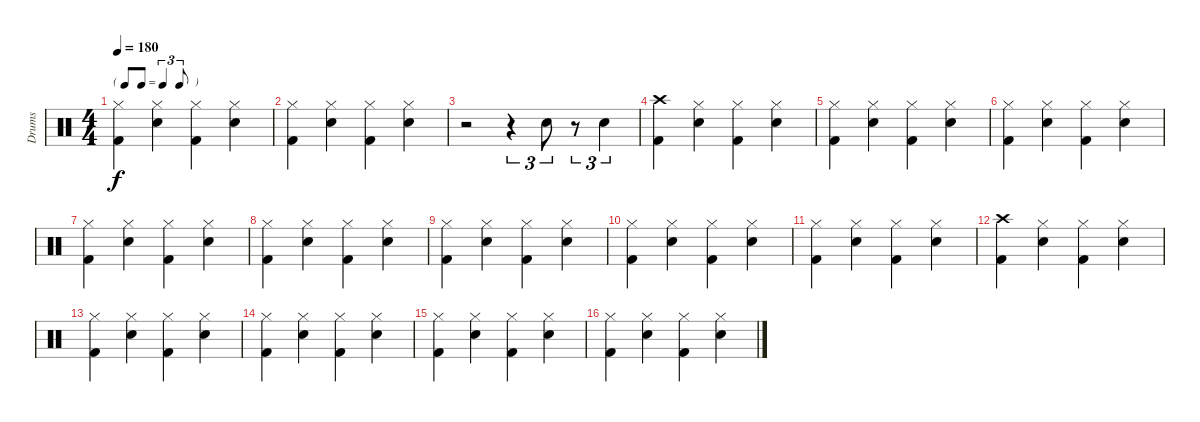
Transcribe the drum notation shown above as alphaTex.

\track ("Drums" "Drums") {instrument percussion}
\staff {score}
\articulation defaults
\ts (4 4)
\tf triplet8th
\tempo 180
\clef neutral
\ks c
("Hi-Hat (closed)" "Kick (hit) 2").4{dy f} ("Hi-Hat (closed)" "Snare (hit) 2").4 ("Hi-Hat (closed)" "Kick (hit) 2").4 ("Hi-Hat (closed)" "Snare (hit) 2").4 |
("Hi-Hat (closed)" "Kick (hit) 2").4 ("Hi-Hat (closed)" "Snare (hit) 2").4 ("Hi-Hat (closed)" "Kick (hit) 2").4 ("Hi-Hat (closed)" "Snare (hit) 2").4 |
r.2 r.4{tu (3 2)} "Snare (hit) 2".8{tu (3 2)} r.8{tu (3 2)} "Snare (hit) 2".4{tu (3 2)} |
("Crash high (hit)" "Kick (hit) 2").4 ("Hi-Hat (closed)" "Snare (hit) 2").4 ("Hi-Hat (closed)" "Kick (hit) 2").4 ("Hi-Hat (closed)" "Snare (hit) 2").4 |
("Hi-Hat (closed)" "Kick (hit) 2").4 ("Hi-Hat (closed)" "Snare (hit) 2").4 ("Hi-Hat (closed)" "Kick (hit) 2").4 ("Hi-Hat (closed)" "Snare (hit) 2").4 |
("Hi-Hat (closed)" "Kick (hit) 2").4 ("Hi-Hat (closed)" "Snare (hit) 2").4 ("Hi-Hat (closed)" "Kick (hit) 2").4 ("Hi-Hat (closed)" "Snare (hit) 2").4 |
("Hi-Hat (closed)" "Kick (hit) 2").4 ("Hi-Hat (closed)" "Snare (hit) 2").4 ("Hi-Hat (closed)" "Kick (hit) 2").4 ("Hi-Hat (closed)" "Snare (hit) 2").4 |
("Hi-Hat (closed)" "Kick (hit) 2").4 ("Hi-Hat (closed)" "Snare (hit) 2").4 ("Hi-Hat (closed)" "Kick (hit) 2").4 ("Hi-Hat (closed)" "Snare (hit) 2").4 |
("Hi-Hat (closed)" "Kick (hit) 2").4 ("Hi-Hat (closed)" "Snare (hit) 2").4 ("Hi-Hat (closed)" "Kick (hit) 2").4 ("Hi-Hat (closed)" "Snare (hit) 2").4 |
("Hi-Hat (closed)" "Kick (hit) 2").4 ("Hi-Hat (closed)" "Snare (hit) 2").4 ("Hi-Hat (closed)" "Kick (hit) 2").4 ("Hi-Hat (closed)" "Snare (hit) 2").4 |
("Hi-Hat (closed)" "Kick (hit) 2").4 ("Hi-Hat (closed)" "Snare (hit) 2").4 ("Hi-Hat (closed)" "Kick (hit) 2").4 ("Hi-Hat (closed)" "Snare (hit) 2").4 |
("Crash high (hit)" "Kick (hit) 2").4 ("Hi-Hat (closed)" "Snare (hit) 2").4 ("Hi-Hat (closed)" "Kick (hit) 2").4 ("Hi-Hat (closed)" "Snare (hit) 2").4 |
("Hi-Hat (closed)" "Kick (hit) 2").4 ("Hi-Hat (closed)" "Snare (hit) 2").4 ("Hi-Hat (closed)" "Kick (hit) 2").4 ("Hi-Hat (closed)" "Snare (hit) 2").4 |
("Hi-Hat (closed)" "Kick (hit) 2").4 ("Hi-Hat (closed)" "Snare (hit) 2").4 ("Hi-Hat (closed)" "Kick (hit) 2").4 ("Hi-Hat (closed)" "Snare (hit) 2").4 |
("Hi-Hat (closed)" "Kick (hit) 2").4 ("Hi-Hat (closed)" "Snare (hit) 2").4 ("Hi-Hat (closed)" "Kick (hit) 2").4 ("Hi-Hat (closed)" "Snare (hit) 2").4 |
("Hi-Hat (closed)" "Kick (hit) 2").4 ("Hi-Hat (closed)" "Snare (hit) 2").4 ("Hi-Hat (closed)" "Kick (hit) 2").4 ("Hi-Hat (closed)" "Snare (hit) 2").4
